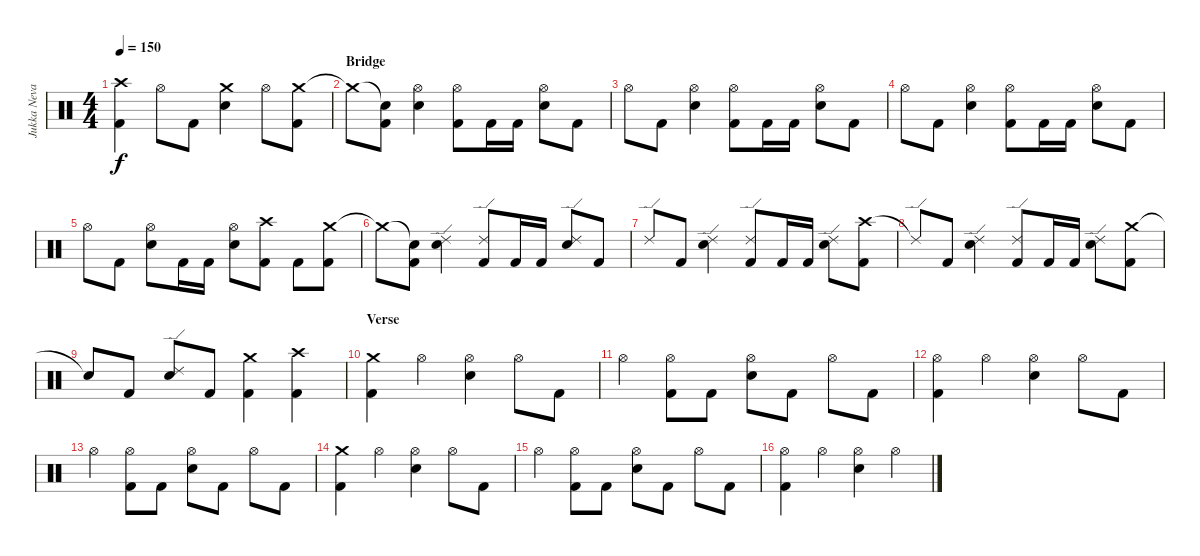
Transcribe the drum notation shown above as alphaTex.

\track ("Jukka Nevalainen" "Jukka Neva") {instrument percussion}
\staff {score}
\articulation defaults
\ts (4 4)
\tempo 150
\clef neutral
\ks c
("Crash high (hit)" "Kick (hit) 2").4{dy f} "Hi-Hat (open)".8 "Kick (hit) 2".8 ("Crash medium (hit)" "Electric Snare (hit)").4 "Hi-Hat (open)".8 ("Crash medium (hit)" "Kick (hit) 2").8 |
\section ("" "Bridge")
"Crash medium (hit)"{t}.8 ("Snare (hit)"{t} "Kick (hit) 2").8 ("Hi-Hat (open)" "Electric Snare (hit)").4 ("Hi-Hat (open)" "Kick (hit) 2").8 "Kick (hit) 2".16 "Kick (hit) 2".16 ("Hi-Hat (open)" "Electric Snare (hit)").8 "Kick (hit) 2".8 |
"Hi-Hat (open)".8 "Kick (hit) 2".8 ("Hi-Hat (open)" "Electric Snare (hit)").4 ("Hi-Hat (open)" "Kick (hit) 2").8 "Kick (hit) 2".16 "Kick (hit) 2".16 ("Hi-Hat (open)" "Electric Snare (hit)").8 "Kick (hit) 2".8 |
"Hi-Hat (open)".8 "Kick (hit) 2".8 ("Hi-Hat (open)" "Electric Snare (hit)").4 ("Hi-Hat (open)" "Kick (hit) 2").8 "Kick (hit) 2".16 "Kick (hit) 2".16 ("Hi-Hat (open)" "Electric Snare (hit)").8 "Kick (hit) 2".8 |
"Hi-Hat (open)".8 "Kick (hit) 2".8 ("Hi-Hat (open)" "Electric Snare (hit)").8 "Kick (hit) 2".16 "Kick (hit) 2".16 ("Hi-Hat (open)" "Electric Snare (hit)").8 ("Crash high (hit)" "Kick (hit) 2").8 "Kick (hit) 2".8 ("Crash medium (hit)" "Kick (hit) 2").8 |
"Crash medium (hit)"{t}.8 ("Snare (hit)"{t} "Kick (hit) 2").8 ("Ride (edge) 2" "Electric Snare (hit)").4 ("Ride (edge) 2" "Kick (hit) 2").8 "Kick (hit) 2".16 "Kick (hit) 2".16 ("Ride (edge) 2" "Electric Snare (hit)").8 "Kick (hit) 2".8 |
"Ride (edge) 2".8 "Kick (hit) 2".8 ("Ride (edge) 2" "Electric Snare (hit)").4 ("Ride (edge) 2" "Kick (hit) 2").8 "Kick (hit) 2".16 "Kick (hit) 2".16 ("Ride (edge) 2" "Electric Snare (hit)").8 ("Crash high (hit)" "Kick (hit) 2").8 |
"Ride (edge) 2"{t}.8 "Kick (hit) 2".8 ("Ride (edge) 2" "Electric Snare (hit)").4 ("Ride (edge) 2" "Kick (hit) 2").8 "Kick (hit) 2".16 "Kick (hit) 2".16 ("Ride (edge) 2" "Electric Snare (hit)").8 ("Crash medium (hit)" "Kick (hit) 2").8 |
"Snare (hit)"{t}.8 "Kick (hit) 2".8 ("Ride (edge) 2" "Electric Snare (hit)").8 "Kick (hit) 2".8 ("Crash medium (hit)" "Kick (hit) 2").4 ("Crash high (hit)" "Kick (hit) 2").4 |
\section ("" "Verse")
("Crash medium (hit)" "Kick (hit) 2").4 "Hi-Hat (open)".4 ("Hi-Hat (open)" "Electric Snare (hit)").4 "Hi-Hat (open)".8 "Kick (hit) 2".8 |
"Hi-Hat (open)".4 ("Hi-Hat (open)" "Kick (hit) 2").8 "Kick (hit) 2".8 ("Hi-Hat (open)" "Electric Snare (hit)").8 "Kick (hit) 2".8 "Hi-Hat (open)".8 "Kick (hit) 2".8 |
("Hi-Hat (open)" "Kick (hit) 2").4 "Hi-Hat (open)".4 ("Hi-Hat (open)" "Electric Snare (hit)").4 "Hi-Hat (open)".8 "Kick (hit) 2".8 |
"Hi-Hat (open)".4 ("Hi-Hat (open)" "Kick (hit) 2").8 "Kick (hit) 2".8 ("Hi-Hat (open)" "Electric Snare (hit)").8 "Kick (hit) 2".8 "Hi-Hat (open)".8 "Kick (hit) 2".8 |
("Crash medium (hit)" "Kick (hit) 2").4 "Hi-Hat (open)".4 ("Hi-Hat (open)" "Electric Snare (hit)").4 "Hi-Hat (open)".8 "Kick (hit) 2".8 |
"Hi-Hat (open)".4 ("Hi-Hat (open)" "Kick (hit) 2").8 "Kick (hit) 2".8 ("Hi-Hat (open)" "Electric Snare (hit)").8 "Kick (hit) 2".8 "Hi-Hat (open)".8 "Kick (hit) 2".8 |
("Hi-Hat (open)" "Kick (hit) 2").4 "Hi-Hat (open)".4 ("Hi-Hat (open)" "Electric Snare (hit)").4 "Hi-Hat (open)".4
